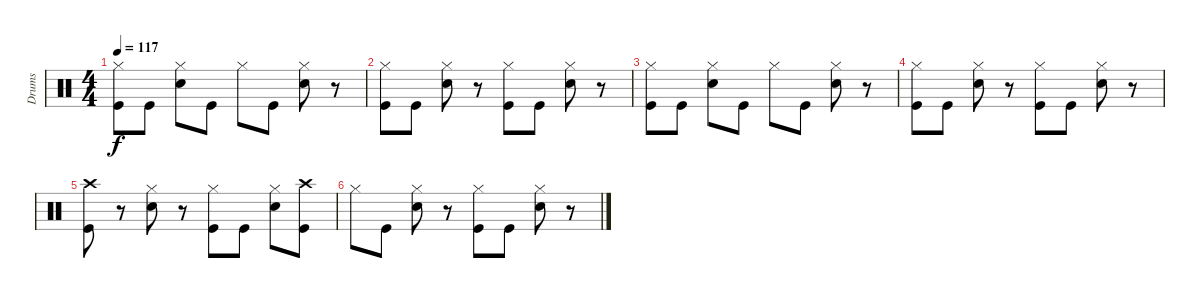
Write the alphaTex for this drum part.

\track ("Drums" "Drums") {instrument percussion}
\staff {score}
\articulation defaults
\ts (4 4)
\tempo 117
\clef neutral
\ks c
("Hi-Hat (closed)" "Kick (hit)").8{dy f} "Kick (hit)".8 ("Hi-Hat (closed)" "Snare (hit) 2").8 "Kick (hit)".8 "Hi-Hat (closed)".8 "Kick (hit)".8 ("Hi-Hat (closed)" "Snare (hit) 2").8 r.8 |
("Hi-Hat (closed)" "Kick (hit)").8 "Kick (hit)".8 ("Hi-Hat (closed)" "Snare (hit) 2").8 r.8 ("Hi-Hat (closed)" "Kick (hit)").8 "Kick (hit)".8 ("Hi-Hat (closed)" "Snare (hit) 2").8 r.8 |
("Hi-Hat (closed)" "Kick (hit)").8 "Kick (hit)".8 ("Hi-Hat (closed)" "Snare (hit) 2").8 "Kick (hit)".8 "Hi-Hat (closed)".8 "Kick (hit)".8 ("Hi-Hat (closed)" "Snare (hit) 2").8 r.8 |
("Hi-Hat (closed)" "Kick (hit)").8 "Kick (hit)".8 ("Hi-Hat (closed)" "Snare (hit) 2").8 r.8 ("Hi-Hat (closed)" "Kick (hit)").8 "Kick (hit)".8 ("Hi-Hat (closed)" "Snare (hit) 2").8 r.8 |
("Crash high (hit)" "Kick (hit)").8 r.8 ("Hi-Hat (closed)" "Snare (hit) 2").8 r.8 ("Hi-Hat (closed)" "Kick (hit)").8 "Kick (hit)".8 ("Hi-Hat (closed)" "Snare (hit) 2").8 ("Crash high (hit)" "Kick (hit)").8 |
"Hi-Hat (closed)".8 "Kick (hit)".8 ("Hi-Hat (closed)" "Snare (hit) 2").8 r.8 ("Hi-Hat (closed)" "Kick (hit)").8 "Kick (hit)".8 ("Hi-Hat (closed)" "Snare (hit) 2").8 r.8
